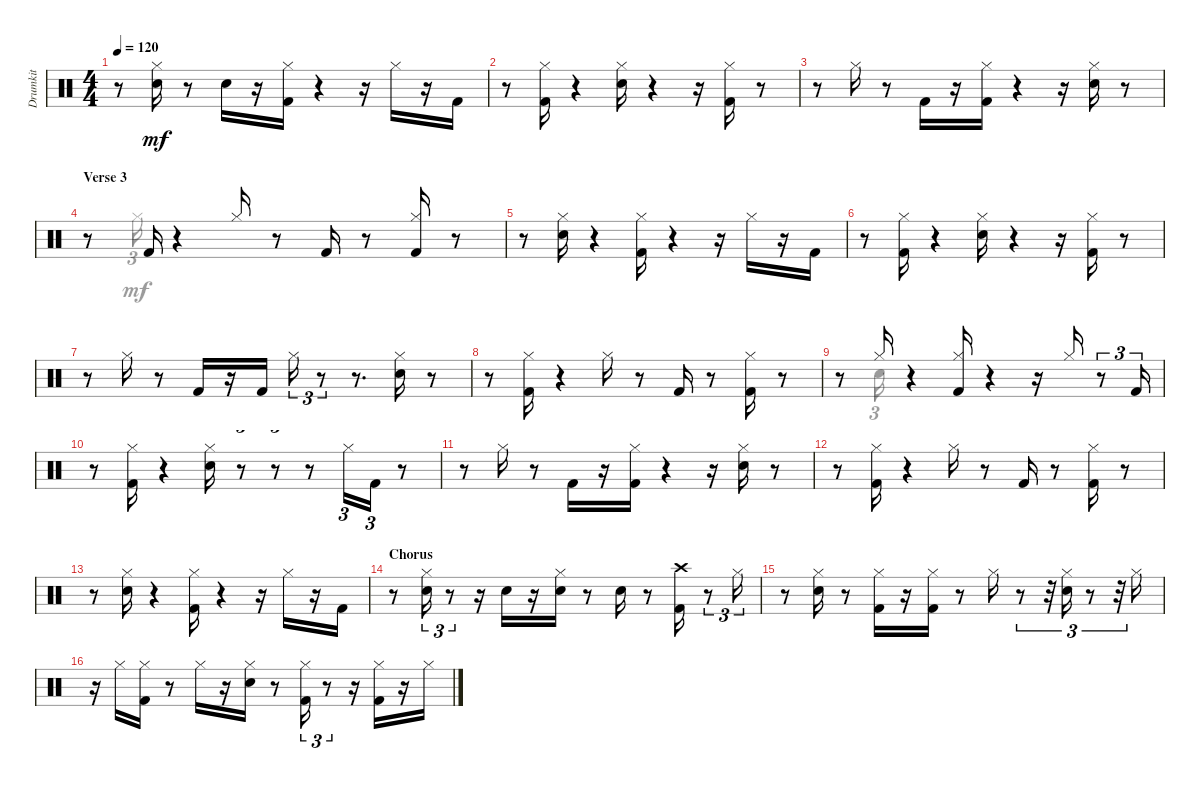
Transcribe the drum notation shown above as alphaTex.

\track ("Drumkit" "Drumkit") {instrument percussion}
\staff {score}
\articulation defaults
\voice
\ts (4 4)
\tempo 120
\clef neutral
\ks aminor
r.8{dy mf} ("Snare (hit) 2" "Hi-Hat (closed)").16 r.8 "Snare (hit) 2".16 r.16 ("Kick (hit) 2" "Hi-Hat (closed)").16 r.4 r.16 "Hi-Hat (closed)".16 r.16 "Kick (hit) 2".16 |
r.8 ("Kick (hit) 2" "Hi-Hat (closed)").16 r.4 ("Snare (hit) 2" "Hi-Hat (closed)").16 r.4 r.16 ("Kick (hit) 2" "Hi-Hat (closed)").16 r.8 |
r.8 "Hi-Hat (closed)".16 r.8 "Kick (hit) 2".16 r.16 ("Kick (hit) 2" "Hi-Hat (closed)").16 r.4 r.16 ("Snare (hit) 2" "Hi-Hat (closed)").16 r.8 |
\section ("" "Verse 3")
r.8 "Kick (hit) 2".16 r.4 "Hi-Hat (closed)".16 r.8 "Kick (hit) 2".16 r.8 ("Kick (hit) 2" "Hi-Hat (closed)").16 r.8 |
r.8 ("Snare (hit) 2" "Hi-Hat (closed)").16 r.4 ("Kick (hit) 2" "Hi-Hat (closed)").16 r.4 r.16 "Hi-Hat (closed)".16 r.16 "Kick (hit) 2".16 |
r.8 ("Kick (hit) 2" "Hi-Hat (closed)").16 r.4 ("Snare (hit) 2" "Hi-Hat (closed)").16 r.4 r.16 ("Kick (hit) 2" "Hi-Hat (closed)").16 r.8 |
r.8 "Hi-Hat (closed)".16 r.8 "Kick (hit) 2".16 r.16 "Kick (hit) 2".16 "Hi-Hat (closed)".16{tu (3 2)} r.8{tu (3 2)} r.8{d} ("Snare (hit) 2" "Hi-Hat (closed)").16 r.8 |
r.8 ("Kick (hit) 2" "Hi-Hat (closed)").16 r.4 "Hi-Hat (closed)".16 r.8 "Kick (hit) 2".16 r.8 ("Kick (hit) 2" "Hi-Hat (closed)").16 r.8 |
r.8 "Hi-Hat (closed)".16 r.4 ("Kick (hit) 2" "Hi-Hat (closed)").16 r.4 r.16 "Hi-Hat (closed)".16 r.8{tu (3 2)} "Kick (hit) 2".16{tu (3 2)} |
r.8 ("Kick (hit) 2" "Hi-Hat (closed)").16 r.4 ("Snare (hit) 2" "Hi-Hat (closed)").16 r.8{tu (3 2)} r.8{tu (3 2)} r.8 "Hi-Hat (closed)".16{tu (3 2)} "Kick (hit) 2".16{tu (3 2)} r.8 |
r.8 "Hi-Hat (closed)".16 r.8 "Kick (hit) 2".16 r.16 ("Kick (hit) 2" "Hi-Hat (closed)").16 r.4 r.16 ("Snare (hit) 2" "Hi-Hat (closed)").16 r.8 |
r.8 ("Kick (hit) 2" "Hi-Hat (closed)").16 r.4 "Hi-Hat (closed)".16 r.8 "Kick (hit) 2".16 r.8 ("Kick (hit) 2" "Hi-Hat (closed)").16 r.8 |
r.8 ("Snare (hit) 2" "Hi-Hat (closed)").16 r.4 ("Kick (hit) 2" "Hi-Hat (closed)").16 r.4 r.16 "Hi-Hat (closed)".16 r.16 "Kick (hit) 2".16 |
\section ("" "Chorus")
r.8 ("Snare (hit) 2" "Hi-Hat (closed)").16{tu (3 2)} r.8{tu (3 2)} r.16 "Snare (hit) 2".16 r.16 ("Snare (hit) 2" "Hi-Hat (closed)").16 r.8 "Snare (hit) 2".16 r.8 ("Kick (hit) 2" "Crash high (hit)").16 r.8{tu (3 2)} "Hi-Hat (closed)".16{tu (3 2)} |
r.8 ("Snare (hit) 2" "Hi-Hat (closed)").16 r.8 ("Kick (hit) 2" "Hi-Hat (closed)").16 r.16 ("Kick (hit) 2" "Hi-Hat (closed)").16 r.8 "Hi-Hat (closed)".16 r.8{tu (3 2)} r.32{tu (3 2)} ("Snare (hit) 2" "Hi-Hat (closed)").16{tu (3 2)} r.8{tu (3 2)} r.32{tu (3 2)} "Hi-Hat (closed)".16 |
r.16 "Hi-Hat (closed)".16 ("Kick (hit) 2" "Hi-Hat (closed)").16 r.8 "Hi-Hat (closed)".16 r.16 ("Snare (hit) 2" "Hi-Hat (closed)").16 r.8 ("Kick (hit) 2" "Hi-Hat (closed)").16{tu (3 2)} r.8{tu (3 2)} r.16 ("Kick (hit) 2" "Hi-Hat (closed)").16 r.16 "Hi-Hat (closed)".16
\voice
\clef neutral
\ottava regular
\simile none
\ks aminor
|
|
|
r.8 "Hi-Hat (closed)".16{tu (3 2)} |
|
|
|
|
r.8 "Snare (hit) 2".16{tu (3 2)} |
|
|
|
|
|
|
